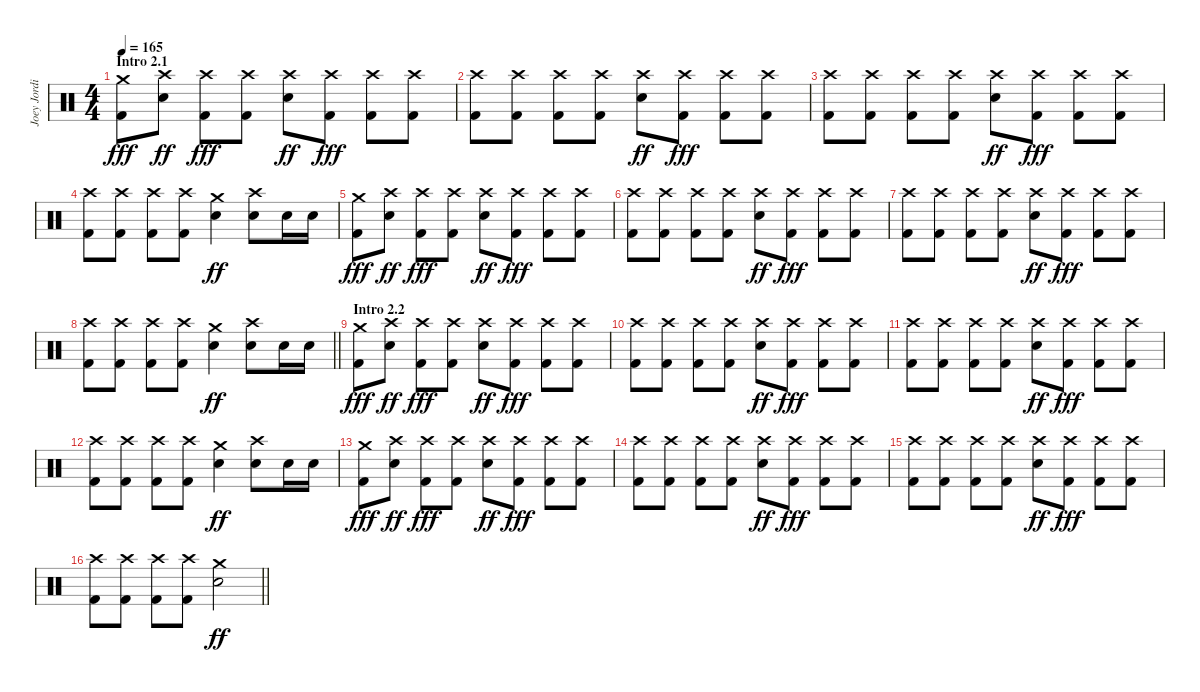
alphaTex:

\track ("Joey Jordison" "Joey Jordi") {instrument percussion}
\staff {score}
\articulation defaults
\ts (4 4)
\section ("" "Intro 2.1")
\tempo 165
\clef neutral
\ks c
("Crash medium (hit)" "Kick (hit) 2").8{dy fff} ("Crash high (hit)" "Electric Snare (hit)").8{dy ff} ("Crash high (hit)" "Kick (hit) 2").8{dy fff} ("Crash high (hit)" "Kick (hit) 2").8 ("Crash high (hit)" "Electric Snare (hit)").8{dy ff} ("Crash high (hit)" "Kick (hit) 2").8{dy fff} ("Crash high (hit)" "Kick (hit) 2").8 ("Crash high (hit)" "Kick (hit) 2").8 |
("Crash high (hit)" "Kick (hit) 2").8 ("Crash high (hit)" "Kick (hit) 2").8 ("Crash high (hit)" "Kick (hit) 2").8 ("Crash high (hit)" "Kick (hit) 2").8 ("Crash high (hit)" "Electric Snare (hit)").8{dy ff} ("Crash high (hit)" "Kick (hit) 2").8{dy fff} ("Crash high (hit)" "Kick (hit) 2").8 ("Crash high (hit)" "Kick (hit) 2").8 |
("Crash high (hit)" "Kick (hit) 2").8 ("Crash high (hit)" "Kick (hit) 2").8 ("Crash high (hit)" "Kick (hit) 2").8 ("Crash high (hit)" "Kick (hit) 2").8 ("Crash high (hit)" "Electric Snare (hit)").8{dy ff} ("Crash high (hit)" "Kick (hit) 2").8{dy fff} ("Crash high (hit)" "Kick (hit) 2").8 ("Crash high (hit)" "Kick (hit) 2").8 |
("Crash high (hit)" "Kick (hit) 2").8 ("Crash high (hit)" "Kick (hit) 2").8 ("Crash high (hit)" "Kick (hit) 2").8 ("Crash high (hit)" "Kick (hit) 2").8 ("Crash medium (hit)" "Electric Snare (hit)").4{dy ff} ("Crash high (hit)" "Electric Snare (hit)").8 "Electric Snare (hit)".16 "Electric Snare (hit)".16 |
("Crash medium (hit)" "Kick (hit) 2").8{dy fff} ("Crash high (hit)" "Electric Snare (hit)").8{dy ff} ("Crash high (hit)" "Kick (hit) 2").8{dy fff} ("Crash high (hit)" "Kick (hit) 2").8 ("Crash high (hit)" "Electric Snare (hit)").8{dy ff} ("Crash high (hit)" "Kick (hit) 2").8{dy fff} ("Crash high (hit)" "Kick (hit) 2").8 ("Crash high (hit)" "Kick (hit) 2").8 |
("Crash high (hit)" "Kick (hit) 2").8 ("Crash high (hit)" "Kick (hit) 2").8 ("Crash high (hit)" "Kick (hit) 2").8 ("Crash high (hit)" "Kick (hit) 2").8 ("Crash high (hit)" "Electric Snare (hit)").8{dy ff} ("Crash high (hit)" "Kick (hit) 2").8{dy fff} ("Crash high (hit)" "Kick (hit) 2").8 ("Crash high (hit)" "Kick (hit) 2").8 |
("Crash high (hit)" "Kick (hit) 2").8 ("Crash high (hit)" "Kick (hit) 2").8 ("Crash high (hit)" "Kick (hit) 2").8 ("Crash high (hit)" "Kick (hit) 2").8 ("Crash high (hit)" "Electric Snare (hit)").8{dy ff} ("Crash high (hit)" "Kick (hit) 2").8{dy fff} ("Crash high (hit)" "Kick (hit) 2").8 ("Crash high (hit)" "Kick (hit) 2").8 |
\barLineRight lightlight
("Crash high (hit)" "Kick (hit) 2").8 ("Crash high (hit)" "Kick (hit) 2").8 ("Crash high (hit)" "Kick (hit) 2").8 ("Crash high (hit)" "Kick (hit) 2").8 ("Crash medium (hit)" "Electric Snare (hit)").4{dy ff} ("Crash high (hit)" "Electric Snare (hit)").8 "Electric Snare (hit)".16 "Electric Snare (hit)".16 |
\section ("" "Intro 2.2")
("Crash medium (hit)" "Kick (hit) 2").8{dy fff} ("Crash high (hit)" "Electric Snare (hit)").8{dy ff} ("Crash high (hit)" "Kick (hit) 2").8{dy fff} ("Crash high (hit)" "Kick (hit) 2").8 ("Crash high (hit)" "Electric Snare (hit)").8{dy ff} ("Crash high (hit)" "Kick (hit) 2").8{dy fff} ("Crash high (hit)" "Kick (hit) 2").8 ("Crash high (hit)" "Kick (hit) 2").8 |
("Crash high (hit)" "Kick (hit) 2").8 ("Crash high (hit)" "Kick (hit) 2").8 ("Crash high (hit)" "Kick (hit) 2").8 ("Crash high (hit)" "Kick (hit) 2").8 ("Crash high (hit)" "Electric Snare (hit)").8{dy ff} ("Crash high (hit)" "Kick (hit) 2").8{dy fff} ("Crash high (hit)" "Kick (hit) 2").8 ("Crash high (hit)" "Kick (hit) 2").8 |
("Crash high (hit)" "Kick (hit) 2").8 ("Crash high (hit)" "Kick (hit) 2").8 ("Crash high (hit)" "Kick (hit) 2").8 ("Crash high (hit)" "Kick (hit) 2").8 ("Crash high (hit)" "Electric Snare (hit)").8{dy ff} ("Crash high (hit)" "Kick (hit) 2").8{dy fff} ("Crash high (hit)" "Kick (hit) 2").8 ("Crash high (hit)" "Kick (hit) 2").8 |
("Crash high (hit)" "Kick (hit) 2").8 ("Crash high (hit)" "Kick (hit) 2").8 ("Crash high (hit)" "Kick (hit) 2").8 ("Crash high (hit)" "Kick (hit) 2").8 ("Crash medium (hit)" "Electric Snare (hit)").4{dy ff} ("Crash high (hit)" "Electric Snare (hit)").8 "Electric Snare (hit)".16 "Electric Snare (hit)".16 |
("Crash medium (hit)" "Kick (hit) 2").8{dy fff} ("Crash high (hit)" "Electric Snare (hit)").8{dy ff} ("Crash high (hit)" "Kick (hit) 2").8{dy fff} ("Crash high (hit)" "Kick (hit) 2").8 ("Crash high (hit)" "Electric Snare (hit)").8{dy ff} ("Crash high (hit)" "Kick (hit) 2").8{dy fff} ("Crash high (hit)" "Kick (hit) 2").8 ("Crash high (hit)" "Kick (hit) 2").8 |
("Crash high (hit)" "Kick (hit) 2").8 ("Crash high (hit)" "Kick (hit) 2").8 ("Crash high (hit)" "Kick (hit) 2").8 ("Crash high (hit)" "Kick (hit) 2").8 ("Crash high (hit)" "Electric Snare (hit)").8{dy ff} ("Crash high (hit)" "Kick (hit) 2").8{dy fff} ("Crash high (hit)" "Kick (hit) 2").8 ("Crash high (hit)" "Kick (hit) 2").8 |
("Crash high (hit)" "Kick (hit) 2").8 ("Crash high (hit)" "Kick (hit) 2").8 ("Crash high (hit)" "Kick (hit) 2").8 ("Crash high (hit)" "Kick (hit) 2").8 ("Crash high (hit)" "Electric Snare (hit)").8{dy ff} ("Crash high (hit)" "Kick (hit) 2").8{dy fff} ("Crash high (hit)" "Kick (hit) 2").8 ("Crash high (hit)" "Kick (hit) 2").8 |
\barLineRight lightlight
("Crash high (hit)" "Kick (hit) 2").8 ("Crash high (hit)" "Kick (hit) 2").8 ("Crash high (hit)" "Kick (hit) 2").8 ("Crash high (hit)" "Kick (hit) 2").8 ("Crash medium (hit)" "Electric Snare (hit)").2{dy ff}
